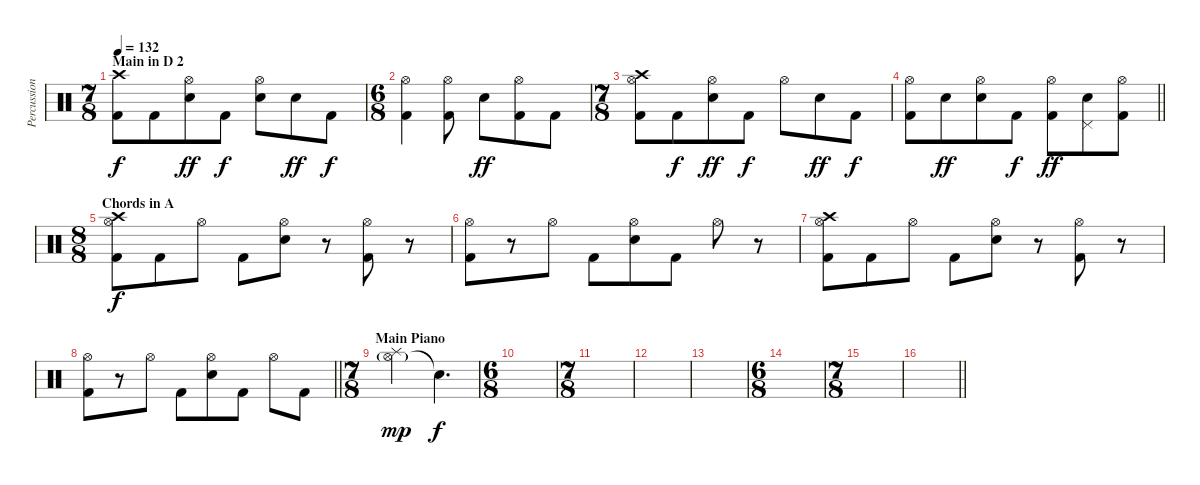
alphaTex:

\track ("Percussion" "Percussion") {instrument percussion}
\staff {score}
\articulation defaults
\ts (7 8)
\section ("" "Main in D 2")
\tempo 132
\clef neutral
\ks c
("Crash high (hit)" "Kick (hit) 2").8{dy f} "Kick (hit) 2".8 ("Hi-Hat (open)" "Electric Snare (hit)").8{dy ff} "Kick (hit) 2".8{dy f} ("Hi-Hat (open)" "Electric Snare (hit)").8 "Electric Snare (hit)".8{dy ff} "Kick (hit) 2".8{dy f} |
\ts (6 8)
("Hi-Hat (open)" "Kick (hit) 2").4 ("Hi-Hat (open)" "Kick (hit) 2").8 "Electric Snare (hit)".8{dy ff} ("Hi-Hat (open)" "Kick (hit) 2").8 "Kick (hit) 2".8 |
\ts (7 8)
("Hi-Hat (open)" "Crash high (hit)" "Kick (hit) 2").8 "Kick (hit) 2".8{dy f} ("Hi-Hat (open)" "Electric Snare (hit)").8{dy ff} "Kick (hit) 2".8{dy f} "Hi-Hat (open)".8 "Electric Snare (hit)".8{dy ff} "Kick (hit) 2".8{dy f} |
\barLineRight lightlight
("Hi-Hat (open)" "Kick (hit) 2").8 "Electric Snare (hit)".8{dy ff} ("Hi-Hat (open)" "Electric Snare (hit)").8 "Kick (hit) 2".8{dy f} ("Hi-Hat (open)" "Kick (hit) 2").8{dy ff} ("Pedal Hi-Hat (hit)" "Electric Snare (hit)").8 ("Hi-Hat (open)" "Kick (hit) 2").8 |
\ts (8 8)
\section ("" "Chords in A")
("Hi-Hat (open)" "Crash high (hit)" "Kick (hit) 2").8{dy f} "Kick (hit) 2".8 "Hi-Hat (open)".8 "Kick (hit) 2".8 ("Hi-Hat (open)" "Electric Snare (hit)").8 r.8 ("Hi-Hat (open)" "Kick (hit) 2").8 r.8 |
("Hi-Hat (open)" "Kick (hit) 2").8 r.8 "Hi-Hat (open)".8 "Kick (hit) 2".8 ("Hi-Hat (open)" "Electric Snare (hit)").8 "Kick (hit) 2".8 "Hi-Hat (open)".8 r.8 |
("Hi-Hat (open)" "Crash high (hit)" "Kick (hit) 2").8 "Kick (hit) 2".8 "Hi-Hat (open)".8 "Kick (hit) 2".8 ("Hi-Hat (open)" "Electric Snare (hit)").8 r.8 ("Hi-Hat (open)" "Kick (hit) 2").8 r.8 |
\barLineRight lightlight
("Hi-Hat (open)" "Kick (hit) 2").8 r.8 "Hi-Hat (open)".8 "Kick (hit) 2".8 ("Hi-Hat (open)" "Electric Snare (hit)").8 "Kick (hit) 2".8 "Hi-Hat (open)".8 "Kick (hit) 2".8 |
\ts (7 8)
\section ("" "Main Piano")
("Hi-Hat (open)"{g} "Splash (hit)").2{dy mp} "Snare (hit)"{t}.4{d dy f} |
\ts (6 8)
|
\ts (7 8)
|
|
|
\ts (6 8)
|
\ts (7 8)
|
\barLineRight lightlight
